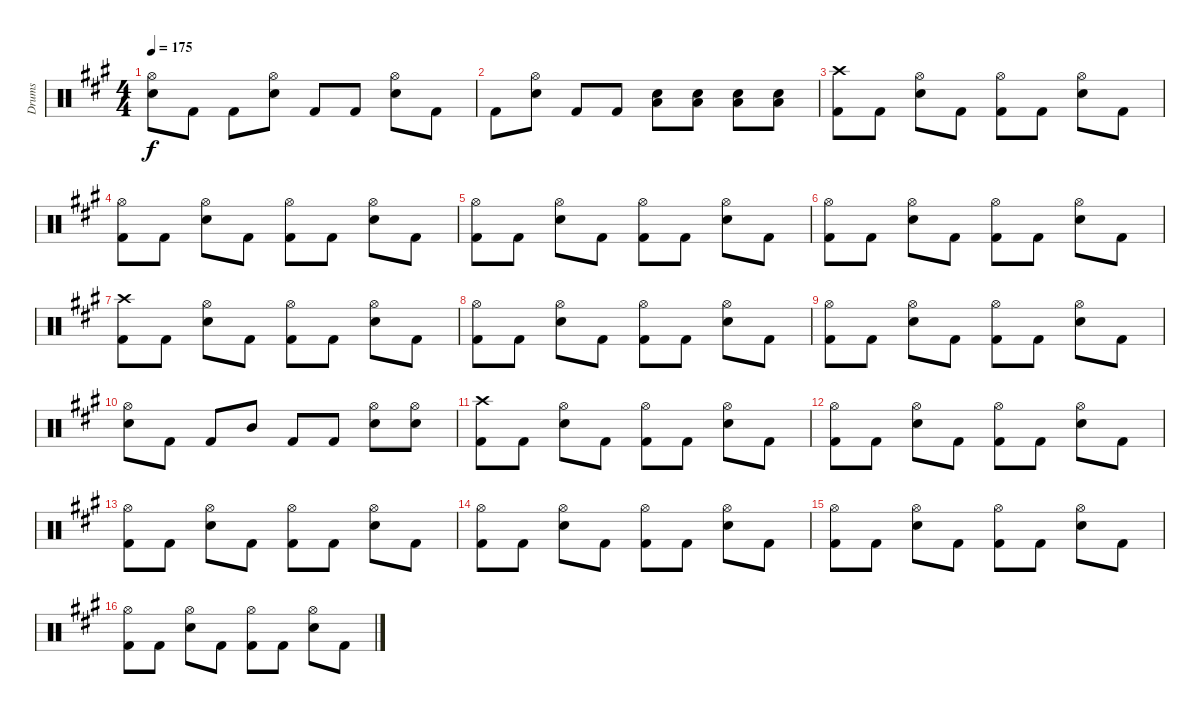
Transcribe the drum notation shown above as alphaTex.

\track ("Drums" "Drums") {instrument percussion}
\staff {score}
\articulation defaults
\ts (4 4)
\tempo 175
\clef neutral
\ks a
("Hi-Hat (open)" "Snare (hit) 2").8{dy f} "Kick (hit) 2".8 "Kick (hit) 2".8 ("Hi-Hat (open)" "Snare (hit) 2").8 "Kick (hit) 2".8 "Kick (hit) 2".8 ("Hi-Hat (open)" "Snare (hit) 2").8 "Kick (hit) 2".8 |
"Kick (hit) 2".8 ("Hi-Hat (open)" "Snare (hit) 2").8 "Kick (hit) 2".8 "Kick (hit) 2".8 ("Snare (hit) 2" "Low Floor Tom (hit)").8 ("Snare (hit) 2" "Low Floor Tom (hit)").8 ("Snare (hit) 2" "Low Floor Tom (hit)").8 ("Snare (hit) 2" "Low Floor Tom (hit)").8 |
("Crash high (hit)" "Kick (hit) 2").8 "Kick (hit) 2".8 ("Hi-Hat (open)" "Snare (hit) 2").8 "Kick (hit) 2".8 ("Hi-Hat (open)" "Kick (hit) 2").8 "Kick (hit) 2".8 ("Hi-Hat (open)" "Snare (hit) 2").8 "Kick (hit) 2".8 |
("Hi-Hat (open)" "Kick (hit) 2").8 "Kick (hit) 2".8 ("Hi-Hat (open)" "Snare (hit) 2").8 "Kick (hit) 2".8 ("Hi-Hat (open)" "Kick (hit) 2").8 "Kick (hit) 2".8 ("Hi-Hat (open)" "Snare (hit) 2").8 "Kick (hit) 2".8 |
("Hi-Hat (open)" "Kick (hit) 2").8 "Kick (hit) 2".8 ("Hi-Hat (open)" "Snare (hit) 2").8 "Kick (hit) 2".8 ("Hi-Hat (open)" "Kick (hit) 2").8 "Kick (hit) 2".8 ("Hi-Hat (open)" "Snare (hit) 2").8 "Kick (hit) 2".8 |
("Hi-Hat (open)" "Kick (hit) 2").8 "Kick (hit) 2".8 ("Hi-Hat (open)" "Snare (hit) 2").8 "Kick (hit) 2".8 ("Hi-Hat (open)" "Kick (hit) 2").8 "Kick (hit) 2".8 ("Hi-Hat (open)" "Snare (hit) 2").8 "Kick (hit) 2".8 |
("Crash high (hit)" "Kick (hit) 2").8 "Kick (hit) 2".8 ("Hi-Hat (open)" "Snare (hit) 2").8 "Kick (hit) 2".8 ("Hi-Hat (open)" "Kick (hit) 2").8 "Kick (hit) 2".8 ("Hi-Hat (open)" "Snare (hit) 2").8 "Kick (hit) 2".8 |
("Hi-Hat (open)" "Kick (hit) 2").8 "Kick (hit) 2".8 ("Hi-Hat (open)" "Snare (hit) 2").8 "Kick (hit) 2".8 ("Hi-Hat (open)" "Kick (hit) 2").8 "Kick (hit) 2".8 ("Hi-Hat (open)" "Snare (hit) 2").8 "Kick (hit) 2".8 |
("Hi-Hat (open)" "Kick (hit) 2").8 "Kick (hit) 2".8 ("Hi-Hat (open)" "Snare (hit) 2").8 "Kick (hit) 2".8 ("Hi-Hat (open)" "Kick (hit) 2").8 "Kick (hit) 2".8 ("Hi-Hat (open)" "Snare (hit) 2").8 "Kick (hit) 2".8 |
("Hi-Hat (open)" "Snare (hit) 2").8 "Kick (hit) 2".8 "Kick (hit) 2".8 "Mid Tom (hit)".8 "Kick (hit) 2".8 "Kick (hit) 2".8 ("Hi-Hat (open)" "Snare (hit) 2").8 ("Hi-Hat (open)" "Snare (hit) 2").8 |
("Crash high (hit)" "Kick (hit) 2").8 "Kick (hit) 2".8 ("Hi-Hat (open)" "Snare (hit) 2").8 "Kick (hit) 2".8 ("Hi-Hat (open)" "Kick (hit) 2").8 "Kick (hit) 2".8 ("Hi-Hat (open)" "Snare (hit) 2").8 "Kick (hit) 2".8 |
("Hi-Hat (open)" "Kick (hit) 2").8 "Kick (hit) 2".8 ("Hi-Hat (open)" "Snare (hit) 2").8 "Kick (hit) 2".8 ("Hi-Hat (open)" "Kick (hit) 2").8 "Kick (hit) 2".8 ("Hi-Hat (open)" "Snare (hit) 2").8 "Kick (hit) 2".8 |
("Hi-Hat (open)" "Kick (hit) 2").8 "Kick (hit) 2".8 ("Hi-Hat (open)" "Snare (hit) 2").8 "Kick (hit) 2".8 ("Hi-Hat (open)" "Kick (hit) 2").8 "Kick (hit) 2".8 ("Hi-Hat (open)" "Snare (hit) 2").8 "Kick (hit) 2".8 |
("Hi-Hat (open)" "Kick (hit) 2").8 "Kick (hit) 2".8 ("Hi-Hat (open)" "Snare (hit) 2").8 "Kick (hit) 2".8 ("Hi-Hat (open)" "Kick (hit) 2").8 "Kick (hit) 2".8 ("Hi-Hat (open)" "Snare (hit) 2").8 "Kick (hit) 2".8 |
("Hi-Hat (open)" "Kick (hit) 2").8 "Kick (hit) 2".8 ("Hi-Hat (open)" "Snare (hit) 2").8 "Kick (hit) 2".8 ("Hi-Hat (open)" "Kick (hit) 2").8 "Kick (hit) 2".8 ("Hi-Hat (open)" "Snare (hit) 2").8 "Kick (hit) 2".8 |
("Hi-Hat (open)" "Kick (hit) 2").8 "Kick (hit) 2".8 ("Hi-Hat (open)" "Snare (hit) 2").8 "Kick (hit) 2".8 ("Hi-Hat (open)" "Kick (hit) 2").8 "Kick (hit) 2".8 ("Hi-Hat (open)" "Snare (hit) 2").8 "Kick (hit) 2".8
